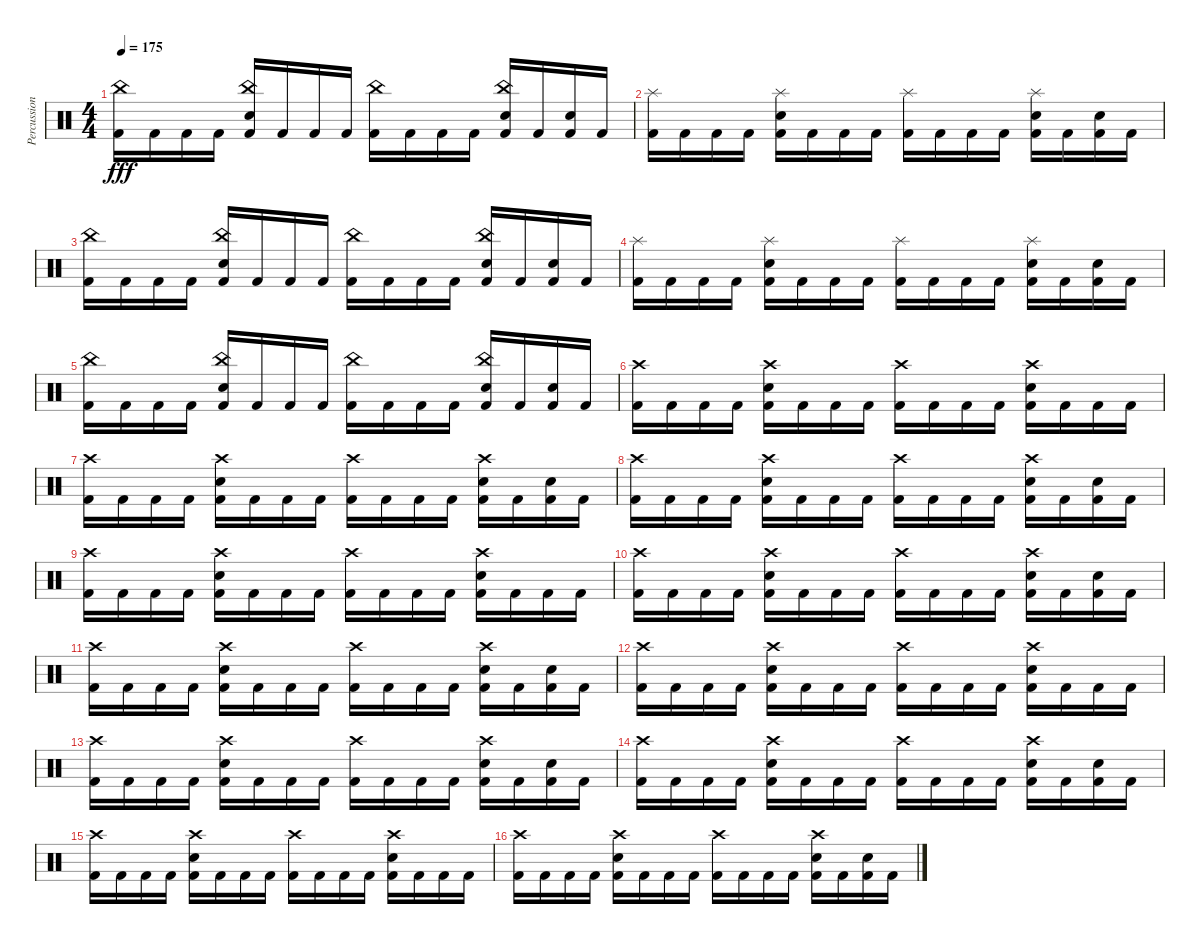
\track ("Percussion" "Percussion") {instrument percussion}
\staff {score}
\articulation defaults
\ts (4 4)
\tempo 175
\clef neutral
\ks c
("Kick (hit) 2" "China (hit)").16{dy fff} "Kick (hit) 2".16 "Kick (hit) 2".16 "Kick (hit) 2".16 ("Kick (hit) 2" "Electric Snare (hit)" "China (hit)").16 "Kick (hit) 2".16 "Kick (hit) 2".16 "Kick (hit) 2".16 ("Kick (hit) 2" "China (hit)").16 "Kick (hit) 2".16 "Kick (hit) 2".16 "Kick (hit) 2".16 ("Kick (hit) 2" "Electric Snare (hit)" "China (hit)").16 "Kick (hit) 2".16 ("Kick (hit) 2" "Electric Snare (hit)").16 "Kick (hit) 2".16 |
("Kick (hit) 2" "Splash (hit)").16 "Kick (hit) 2".16 "Kick (hit) 2".16 "Kick (hit) 2".16 ("Kick (hit) 2" "Electric Snare (hit)" "Splash (hit)").16 "Kick (hit) 2".16 "Kick (hit) 2".16 "Kick (hit) 2".16 ("Kick (hit) 2" "Splash (hit)").16 "Kick (hit) 2".16 "Kick (hit) 2".16 "Kick (hit) 2".16 ("Kick (hit) 2" "Electric Snare (hit)" "Splash (hit)").16 "Kick (hit) 2".16 ("Kick (hit) 2" "Electric Snare (hit)").16 "Kick (hit) 2".16 |
("Kick (hit) 2" "China (hit)").16 "Kick (hit) 2".16 "Kick (hit) 2".16 "Kick (hit) 2".16 ("Kick (hit) 2" "Electric Snare (hit)" "China (hit)").16 "Kick (hit) 2".16 "Kick (hit) 2".16 "Kick (hit) 2".16 ("Kick (hit) 2" "China (hit)").16 "Kick (hit) 2".16 "Kick (hit) 2".16 "Kick (hit) 2".16 ("Kick (hit) 2" "Electric Snare (hit)" "China (hit)").16 "Kick (hit) 2".16 ("Kick (hit) 2" "Electric Snare (hit)").16 "Kick (hit) 2".16 |
("Kick (hit) 2" "Splash (hit)").16 "Kick (hit) 2".16 "Kick (hit) 2".16 "Kick (hit) 2".16 ("Kick (hit) 2" "Electric Snare (hit)" "Splash (hit)").16 "Kick (hit) 2".16 "Kick (hit) 2".16 "Kick (hit) 2".16 ("Kick (hit) 2" "Splash (hit)").16 "Kick (hit) 2".16 "Kick (hit) 2".16 "Kick (hit) 2".16 ("Kick (hit) 2" "Electric Snare (hit)" "Splash (hit)").16 "Kick (hit) 2".16 ("Kick (hit) 2" "Electric Snare (hit)").16 "Kick (hit) 2".16 |
("Kick (hit) 2" "China (hit)").16 "Kick (hit) 2".16 "Kick (hit) 2".16 "Kick (hit) 2".16 ("Kick (hit) 2" "Electric Snare (hit)" "China (hit)").16 "Kick (hit) 2".16 "Kick (hit) 2".16 "Kick (hit) 2".16 ("Kick (hit) 2" "China (hit)").16 "Kick (hit) 2".16 "Kick (hit) 2".16 "Kick (hit) 2".16 ("Kick (hit) 2" "Electric Snare (hit)" "China (hit)").16 "Kick (hit) 2".16 ("Kick (hit) 2" "Electric Snare (hit)").16 "Kick (hit) 2".16 |
("Kick (hit) 2" "Crash high (hit)").16 "Kick (hit) 2".16 "Kick (hit) 2".16 "Kick (hit) 2".16 ("Kick (hit) 2" "Electric Snare (hit)" "Crash high (hit)").16 "Kick (hit) 2".16 "Kick (hit) 2".16 "Kick (hit) 2".16 ("Kick (hit) 2" "Crash high (hit)").16 "Kick (hit) 2".16 "Kick (hit) 2".16 "Kick (hit) 2".16 ("Kick (hit) 2" "Electric Snare (hit)" "Crash high (hit)").16 "Kick (hit) 2".16 "Kick (hit) 2".16 "Kick (hit) 2".16 |
("Kick (hit) 2" "Crash high (hit)").16 "Kick (hit) 2".16 "Kick (hit) 2".16 "Kick (hit) 2".16 ("Kick (hit) 2" "Electric Snare (hit)" "Crash high (hit)").16 "Kick (hit) 2".16 "Kick (hit) 2".16 "Kick (hit) 2".16 ("Kick (hit) 2" "Crash high (hit)").16 "Kick (hit) 2".16 "Kick (hit) 2".16 "Kick (hit) 2".16 ("Kick (hit) 2" "Electric Snare (hit)" "Crash high (hit)").16 "Kick (hit) 2".16 ("Kick (hit) 2" "Electric Snare (hit)").16 "Kick (hit) 2".16 |
("Kick (hit) 2" "Crash high (hit)").16 "Kick (hit) 2".16 "Kick (hit) 2".16 "Kick (hit) 2".16 ("Kick (hit) 2" "Electric Snare (hit)" "Crash high (hit)").16 "Kick (hit) 2".16 "Kick (hit) 2".16 "Kick (hit) 2".16 ("Kick (hit) 2" "Crash high (hit)").16 "Kick (hit) 2".16 "Kick (hit) 2".16 "Kick (hit) 2".16 ("Kick (hit) 2" "Electric Snare (hit)" "Crash high (hit)").16 "Kick (hit) 2".16 ("Kick (hit) 2" "Electric Snare (hit)").16 "Kick (hit) 2".16 |
("Kick (hit) 2" "Crash high (hit)").16 "Kick (hit) 2".16 "Kick (hit) 2".16 "Kick (hit) 2".16 ("Kick (hit) 2" "Electric Snare (hit)" "Crash high (hit)").16 "Kick (hit) 2".16 "Kick (hit) 2".16 "Kick (hit) 2".16 ("Kick (hit) 2" "Crash high (hit)").16 "Kick (hit) 2".16 "Kick (hit) 2".16 "Kick (hit) 2".16 ("Kick (hit) 2" "Electric Snare (hit)" "Crash high (hit)").16 "Kick (hit) 2".16 "Kick (hit) 2".16 "Kick (hit) 2".16 |
("Kick (hit) 2" "Crash high (hit)").16 "Kick (hit) 2".16 "Kick (hit) 2".16 "Kick (hit) 2".16 ("Kick (hit) 2" "Electric Snare (hit)" "Crash high (hit)").16 "Kick (hit) 2".16 "Kick (hit) 2".16 "Kick (hit) 2".16 ("Kick (hit) 2" "Crash high (hit)").16 "Kick (hit) 2".16 "Kick (hit) 2".16 "Kick (hit) 2".16 ("Kick (hit) 2" "Electric Snare (hit)" "Crash high (hit)").16 "Kick (hit) 2".16 ("Kick (hit) 2" "Electric Snare (hit)").16 "Kick (hit) 2".16 |
("Kick (hit) 2" "Crash high (hit)").16 "Kick (hit) 2".16 "Kick (hit) 2".16 "Kick (hit) 2".16 ("Kick (hit) 2" "Electric Snare (hit)" "Crash high (hit)").16 "Kick (hit) 2".16 "Kick (hit) 2".16 "Kick (hit) 2".16 ("Kick (hit) 2" "Crash high (hit)").16 "Kick (hit) 2".16 "Kick (hit) 2".16 "Kick (hit) 2".16 ("Kick (hit) 2" "Electric Snare (hit)" "Crash high (hit)").16 "Kick (hit) 2".16 ("Kick (hit) 2" "Electric Snare (hit)").16 "Kick (hit) 2".16 |
("Kick (hit) 2" "Crash high (hit)").16 "Kick (hit) 2".16 "Kick (hit) 2".16 "Kick (hit) 2".16 ("Kick (hit) 2" "Electric Snare (hit)" "Crash high (hit)").16 "Kick (hit) 2".16 "Kick (hit) 2".16 "Kick (hit) 2".16 ("Kick (hit) 2" "Crash high (hit)").16 "Kick (hit) 2".16 "Kick (hit) 2".16 "Kick (hit) 2".16 ("Kick (hit) 2" "Electric Snare (hit)" "Crash high (hit)").16 "Kick (hit) 2".16 "Kick (hit) 2".16 "Kick (hit) 2".16 |
("Kick (hit) 2" "Crash high (hit)").16 "Kick (hit) 2".16 "Kick (hit) 2".16 "Kick (hit) 2".16 ("Kick (hit) 2" "Electric Snare (hit)" "Crash high (hit)").16 "Kick (hit) 2".16 "Kick (hit) 2".16 "Kick (hit) 2".16 ("Kick (hit) 2" "Crash high (hit)").16 "Kick (hit) 2".16 "Kick (hit) 2".16 "Kick (hit) 2".16 ("Kick (hit) 2" "Electric Snare (hit)" "Crash high (hit)").16 "Kick (hit) 2".16 ("Kick (hit) 2" "Electric Snare (hit)").16 "Kick (hit) 2".16 |
("Kick (hit) 2" "Crash high (hit)").16 "Kick (hit) 2".16 "Kick (hit) 2".16 "Kick (hit) 2".16 ("Kick (hit) 2" "Electric Snare (hit)" "Crash high (hit)").16 "Kick (hit) 2".16 "Kick (hit) 2".16 "Kick (hit) 2".16 ("Kick (hit) 2" "Crash high (hit)").16 "Kick (hit) 2".16 "Kick (hit) 2".16 "Kick (hit) 2".16 ("Kick (hit) 2" "Electric Snare (hit)" "Crash high (hit)").16 "Kick (hit) 2".16 ("Kick (hit) 2" "Electric Snare (hit)").16 "Kick (hit) 2".16 |
("Kick (hit) 2" "Crash high (hit)").16 "Kick (hit) 2".16 "Kick (hit) 2".16 "Kick (hit) 2".16 ("Kick (hit) 2" "Electric Snare (hit)" "Crash high (hit)").16 "Kick (hit) 2".16 "Kick (hit) 2".16 "Kick (hit) 2".16 ("Kick (hit) 2" "Crash high (hit)").16 "Kick (hit) 2".16 "Kick (hit) 2".16 "Kick (hit) 2".16 ("Kick (hit) 2" "Electric Snare (hit)" "Crash high (hit)").16 "Kick (hit) 2".16 "Kick (hit) 2".16 "Kick (hit) 2".16 |
("Kick (hit) 2" "Crash high (hit)").16 "Kick (hit) 2".16 "Kick (hit) 2".16 "Kick (hit) 2".16 ("Kick (hit) 2" "Electric Snare (hit)" "Crash high (hit)").16 "Kick (hit) 2".16 "Kick (hit) 2".16 "Kick (hit) 2".16 ("Kick (hit) 2" "Crash high (hit)").16 "Kick (hit) 2".16 "Kick (hit) 2".16 "Kick (hit) 2".16 ("Kick (hit) 2" "Electric Snare (hit)" "Crash high (hit)").16 "Kick (hit) 2".16 ("Kick (hit) 2" "Electric Snare (hit)").16 "Kick (hit) 2".16
